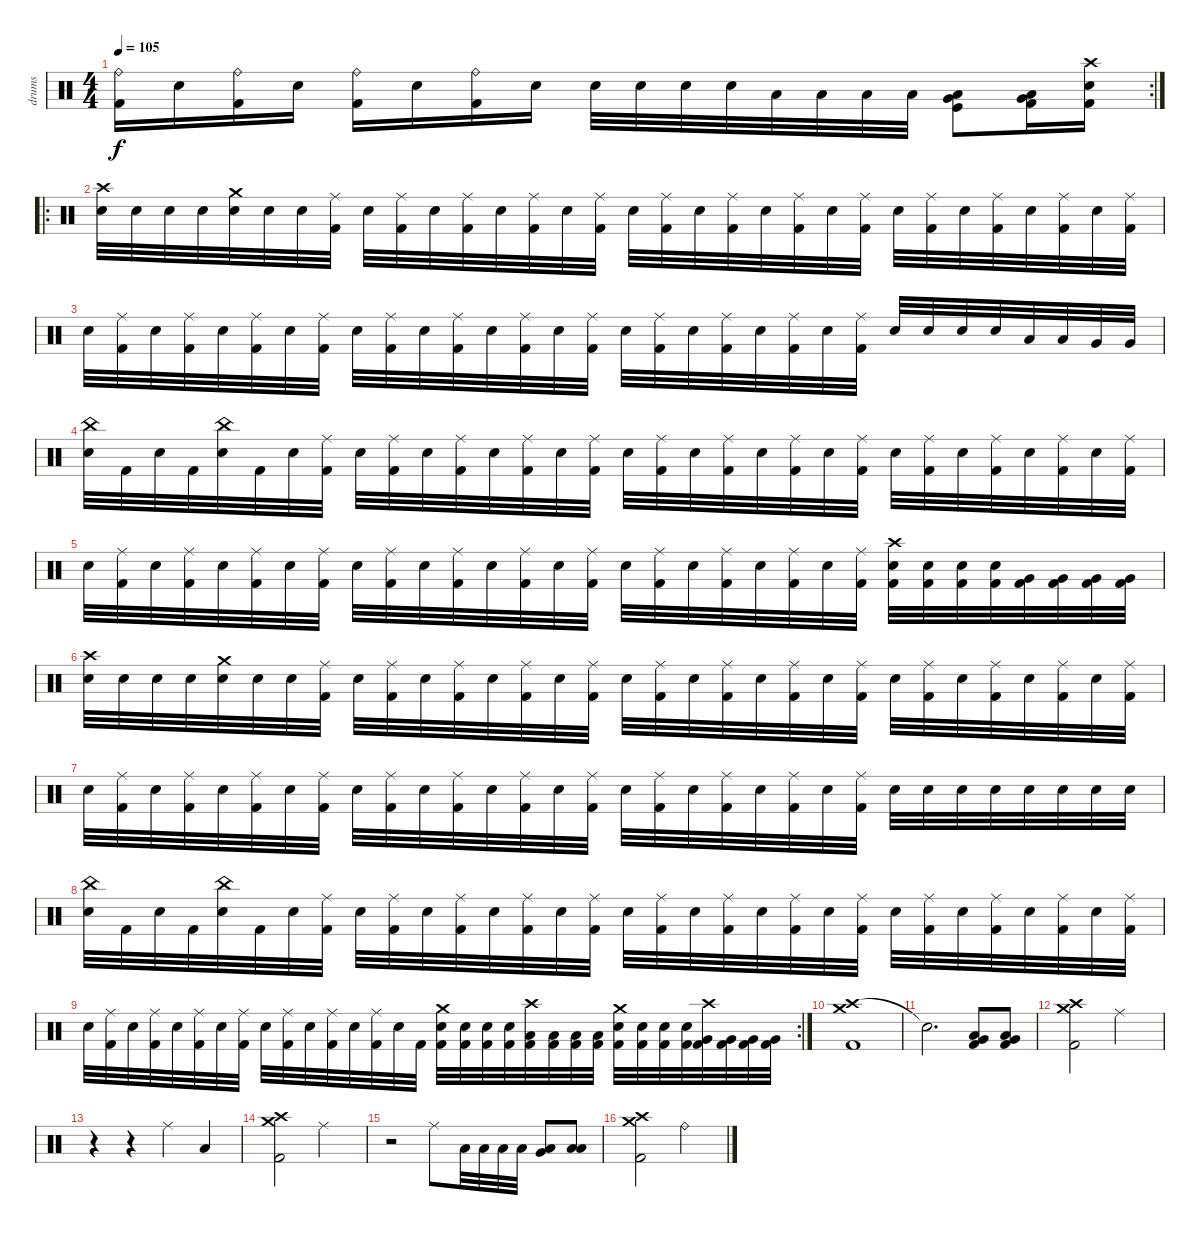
\track ("drums" "drums") {instrument percussion}
\staff {score}
\articulation defaults
\rc 2
\ts (4 4)
\tempo 105
\clef neutral
\ks c
("Ride (bell)" "Kick (hit) 2").16{dy f} "Snare (hit) 2".16 ("Ride (bell)" "Kick (hit) 2").16 "Snare (hit) 2".16 ("Ride (bell)" "Kick (hit) 2").16 "Snare (hit) 2".16 ("Ride (bell)" "Kick (hit) 2").16 "Snare (hit) 2".16 "Snare (hit) 2".32 "Snare (hit) 2".32 "Snare (hit) 2".32 "Snare (hit) 2".32 "Low Tom (hit)".32 "Low Tom (hit)".32 "Low Tom (hit)".32 "Low Tom (hit)".32 ("Very Low Tom (hit)" "Low Floor Tom (hit)" "Kick (hit)").8 ("Very Low Tom (hit)" "Low Floor Tom (hit)" "Kick (hit) 2").16 ("Crash high (hit)" "Snare (hit) 2" "Kick (hit) 2").16 |
\ro
("Crash high (hit)" "Snare (hit) 2").32 "Snare (hit) 2".32 "Snare (hit) 2".32 "Snare (hit) 2".32 ("Crash medium (hit)" "Snare (hit) 2").32 "Snare (hit) 2".32 "Snare (hit) 2".32 ("Ride (middle)" "Kick (hit) 2").32 "Snare (hit) 2".32 ("Ride (middle)" "Kick (hit) 2").32 "Snare (hit) 2".32 ("Ride (middle)" "Kick (hit) 2").32 "Snare (hit) 2".32 ("Ride (middle)" "Kick (hit) 2").32 "Snare (hit) 2".32 ("Ride (middle)" "Kick (hit) 2").32 "Snare (hit) 2".32 ("Ride (middle)" "Kick (hit) 2").32 "Snare (hit) 2".32 ("Ride (middle)" "Kick (hit) 2").32 "Snare (hit) 2".32 ("Ride (middle)" "Kick (hit) 2").32 "Snare (hit) 2".32 ("Ride (middle)" "Kick (hit) 2").32 "Snare (hit) 2".32 ("Ride (middle)" "Kick (hit) 2").32 "Snare (hit) 2".32 ("Ride (middle)" "Kick (hit) 2").32 "Snare (hit) 2".32 ("Ride (middle)" "Kick (hit) 2").32 "Snare (hit) 2".32 ("Ride (middle)" "Kick (hit) 2").32 |
"Snare (hit) 2".32 ("Ride (middle)" "Kick (hit) 2").32 "Snare (hit) 2".32 ("Ride (middle)" "Kick (hit) 2").32 "Snare (hit) 2".32 ("Ride (middle)" "Kick (hit) 2").32 "Snare (hit) 2".32 ("Ride (middle)" "Kick (hit) 2").32 "Snare (hit) 2".32 ("Ride (middle)" "Kick (hit) 2").32 "Snare (hit) 2".32 ("Ride (middle)" "Kick (hit) 2").32 "Snare (hit) 2".32 ("Ride (middle)" "Kick (hit) 2").32 "Snare (hit) 2".32 ("Ride (middle)" "Kick (hit) 2").32 "Snare (hit) 2".32 ("Ride (middle)" "Kick (hit) 2").32 "Snare (hit) 2".32 ("Ride (middle)" "Kick (hit) 2").32 "Snare (hit) 2".32 ("Ride (middle)" "Kick (hit) 2").32 "Snare (hit) 2".32 ("Ride (middle)" "Kick (hit) 2").32 "Snare (hit) 2".32 "Snare (hit) 2".32 "Snare (hit) 2".32 "Snare (hit) 2".32 "Low Tom (hit)".32 "Low Tom (hit)".32 "Very Low Tom (hit)".32 "Very Low Tom (hit)".32 |
("China (hit)" "Snare (hit) 2").32 "Kick (hit) 2".32 "Snare (hit) 2".32 "Kick (hit) 2".32 ("China (hit)" "Snare (hit) 2").32 "Kick (hit) 2".32 "Snare (hit) 2".32 ("Ride (middle)" "Kick (hit) 2").32 "Snare (hit) 2".32 ("Ride (middle)" "Kick (hit) 2").32 "Snare (hit) 2".32 ("Ride (middle)" "Kick (hit) 2").32 "Snare (hit) 2".32 ("Ride (middle)" "Kick (hit) 2").32 "Snare (hit) 2".32 ("Ride (middle)" "Kick (hit) 2").32 "Snare (hit) 2".32 ("Ride (middle)" "Kick (hit) 2").32 "Snare (hit) 2".32 ("Ride (middle)" "Kick (hit) 2").32 "Snare (hit) 2".32 ("Ride (middle)" "Kick (hit) 2").32 "Snare (hit) 2".32 ("Ride (middle)" "Kick (hit) 2").32 "Snare (hit) 2".32 ("Ride (middle)" "Kick (hit) 2").32 "Snare (hit) 2".32 ("Ride (middle)" "Kick (hit) 2").32 "Snare (hit) 2".32 ("Ride (middle)" "Kick (hit) 2").32 "Snare (hit) 2".32 ("Ride (middle)" "Kick (hit) 2").32 |
"Snare (hit) 2".32 ("Ride (middle)" "Kick (hit) 2").32 "Snare (hit) 2".32 ("Ride (middle)" "Kick (hit) 2").32 "Snare (hit) 2".32 ("Ride (middle)" "Kick (hit) 2").32 "Snare (hit) 2".32 ("Ride (middle)" "Kick (hit) 2").32 "Snare (hit) 2".32 ("Ride (middle)" "Kick (hit) 2").32 "Snare (hit) 2".32 ("Ride (middle)" "Kick (hit) 2").32 "Snare (hit) 2".32 ("Ride (middle)" "Kick (hit) 2").32 "Snare (hit) 2".32 ("Ride (middle)" "Kick (hit) 2").32 "Snare (hit) 2".32 ("Ride (middle)" "Kick (hit) 2").32 "Snare (hit) 2".32 ("Ride (middle)" "Kick (hit) 2").32 "Snare (hit) 2".32 ("Ride (middle)" "Kick (hit) 2").32 "Snare (hit) 2".32 ("Ride (middle)" "Kick (hit) 2").32 ("Crash high (hit)" "Snare (hit) 2" "Kick (hit) 2").32 ("Snare (hit) 2" "Kick (hit) 2").32 ("Snare (hit) 2" "Kick (hit) 2").32 ("Snare (hit) 2" "Kick (hit) 2").32 ("Very Low Tom (hit)" "Kick (hit) 2").32 ("Very Low Tom (hit)" "Kick (hit) 2").32 ("Very Low Tom (hit)" "Kick (hit) 2").32 ("Very Low Tom (hit)" "Kick (hit) 2").32 |
("Crash high (hit)" "Snare (hit) 2").32 "Snare (hit) 2".32 "Snare (hit) 2".32 "Snare (hit) 2".32 ("Crash medium (hit)" "Snare (hit) 2").32 "Snare (hit) 2".32 "Snare (hit) 2".32 ("Ride (middle)" "Kick (hit) 2").32 "Snare (hit) 2".32 ("Ride (middle)" "Kick (hit) 2").32 "Snare (hit) 2".32 ("Ride (middle)" "Kick (hit) 2").32 "Snare (hit) 2".32 ("Ride (middle)" "Kick (hit) 2").32 "Snare (hit) 2".32 ("Ride (middle)" "Kick (hit) 2").32 "Snare (hit) 2".32 ("Ride (middle)" "Kick (hit) 2").32 "Snare (hit) 2".32 ("Ride (middle)" "Kick (hit) 2").32 "Snare (hit) 2".32 ("Ride (middle)" "Kick (hit) 2").32 "Snare (hit) 2".32 ("Ride (middle)" "Kick (hit) 2").32 "Snare (hit) 2".32 ("Ride (middle)" "Kick (hit) 2").32 "Snare (hit) 2".32 ("Ride (middle)" "Kick (hit) 2").32 "Snare (hit) 2".32 ("Ride (middle)" "Kick (hit) 2").32 "Snare (hit) 2".32 ("Ride (middle)" "Kick (hit) 2").32 |
"Snare (hit) 2".32 ("Ride (middle)" "Kick (hit) 2").32 "Snare (hit) 2".32 ("Ride (middle)" "Kick (hit) 2").32 "Snare (hit) 2".32 ("Ride (middle)" "Kick (hit) 2").32 "Snare (hit) 2".32 ("Ride (middle)" "Kick (hit) 2").32 "Snare (hit) 2".32 ("Ride (middle)" "Kick (hit) 2").32 "Snare (hit) 2".32 ("Ride (middle)" "Kick (hit) 2").32 "Snare (hit) 2".32 ("Ride (middle)" "Kick (hit) 2").32 "Snare (hit) 2".32 ("Ride (middle)" "Kick (hit) 2").32 "Snare (hit) 2".32 ("Ride (middle)" "Kick (hit) 2").32 "Snare (hit) 2".32 ("Ride (middle)" "Kick (hit) 2").32 "Snare (hit) 2".32 ("Ride (middle)" "Kick (hit) 2").32 "Snare (hit) 2".32 ("Ride (middle)" "Kick (hit) 2").32 "Snare (hit) 2".32 "Snare (hit) 2".32 "Snare (hit) 2".32 "Snare (hit) 2".32 "Snare (hit) 2".32 "Snare (hit) 2".32 "Snare (hit) 2".32 "Snare (hit) 2".32 |
("China (hit)" "Snare (hit) 2").32 "Kick (hit) 2".32 "Snare (hit) 2".32 "Kick (hit) 2".32 ("China (hit)" "Snare (hit) 2").32 "Kick (hit) 2".32 "Snare (hit) 2".32 ("Ride (middle)" "Kick (hit) 2").32 "Snare (hit) 2".32 ("Ride (middle)" "Kick (hit) 2").32 "Snare (hit) 2".32 ("Ride (middle)" "Kick (hit) 2").32 "Snare (hit) 2".32 ("Ride (middle)" "Kick (hit) 2").32 "Snare (hit) 2".32 ("Ride (middle)" "Kick (hit) 2").32 "Snare (hit) 2".32 ("Ride (middle)" "Kick (hit) 2").32 "Snare (hit) 2".32 ("Ride (middle)" "Kick (hit) 2").32 "Snare (hit) 2".32 ("Ride (middle)" "Kick (hit) 2").32 "Snare (hit) 2".32 ("Ride (middle)" "Kick (hit) 2").32 "Snare (hit) 2".32 ("Ride (middle)" "Kick (hit) 2").32 "Snare (hit) 2".32 ("Ride (middle)" "Kick (hit) 2").32 "Snare (hit) 2".32 ("Ride (middle)" "Kick (hit) 2").32 "Snare (hit) 2".32 ("Ride (middle)" "Kick (hit) 2").32 |
\rc 2 "Snare (hit) 2".32
("Ride (middle)" "Kick (hit) 2").32 "Snare (hit) 2".32 ("Ride (middle)" "Kick (hit) 2").32 "Snare (hit) 2".32 ("Ride (middle)" "Kick (hit) 2").32 "Snare (hit) 2".32 ("Ride (middle)" "Kick (hit) 2").32 "Snare (hit) 2".32 ("Ride (middle)" "Kick (hit) 2").32 "Snare (hit) 2".32 ("Ride (middle)" "Kick (hit) 2").32 "Snare (hit) 2".32 ("Ride (middle)" "Kick (hit) 2").32 "Snare (hit) 2".32 "Kick (hit) 2".32 ("Crash medium (hit)" "Snare (hit) 2" "Kick (hit) 2").32 ("Snare (hit) 2" "Kick (hit) 2").32 ("Snare (hit) 2" "Kick (hit) 2").32 ("Snare (hit) 2" "Kick (hit) 2").32 ("Crash high (hit)" "Low Floor Tom (hit)" "Kick (hit) 2").32 ("Low Floor Tom (hit)" "Kick (hit) 2").32 ("Low Floor Tom (hit)" "Kick (hit) 2").32 ("Low Floor Tom (hit)" "Kick (hit) 2").32 ("Crash medium (hit)" "Snare (hit) 2" "Kick (hit) 2").32 ("Snare (hit) 2" "Kick (hit) 2").32 ("Snare (hit) 2" "Kick (hit) 2").32 ("Snare (hit) 2" "Kick (hit) 2").32 ("Crash high (hit)" "Very Low Tom (hit)" "Kick (hit) 2").32 ("Very Low Tom (hit)" "Kick (hit) 2").32 ("Very Low Tom (hit)" "Kick (hit) 2").32 ("Very Low Tom (hit)" "Kick (hit) 2").32 |
("Crash high (hit)" "Crash medium (hit)" "Kick (hit) 2").1 |
"Snare (hit)"{t}.2{d} ("Low Tom (hit)" "Very Low Tom (hit)" "Kick (hit) 2").8 ("Very Low Tom (hit)" "Low Floor Tom (hit)" "Kick (hit) 2").8 |
("Crash medium (hit)" "Crash high (hit)" "Kick (hit) 2").2 "Ride (middle)".2 |
r.4 r.4 "Ride (middle)".4 "Low Floor Tom (hit)".4 |
("Crash medium (hit)" "Crash high (hit)" "Kick (hit) 2").2 "Ride (middle)".2 |
r.2 "Ride (middle)".8 "Low Tom (hit)".32 "Low Tom (hit)".32 "Low Tom (hit)".32 "Low Tom (hit)".32 ("Very Low Tom (hit)" "Low Floor Tom (hit)").8 ("Low Floor Tom (hit)" "Low Floor Tom (hit)").8 |
("Crash medium (hit)" "Crash high (hit)" "Kick (hit) 2").2 "Ride (bell)".2
